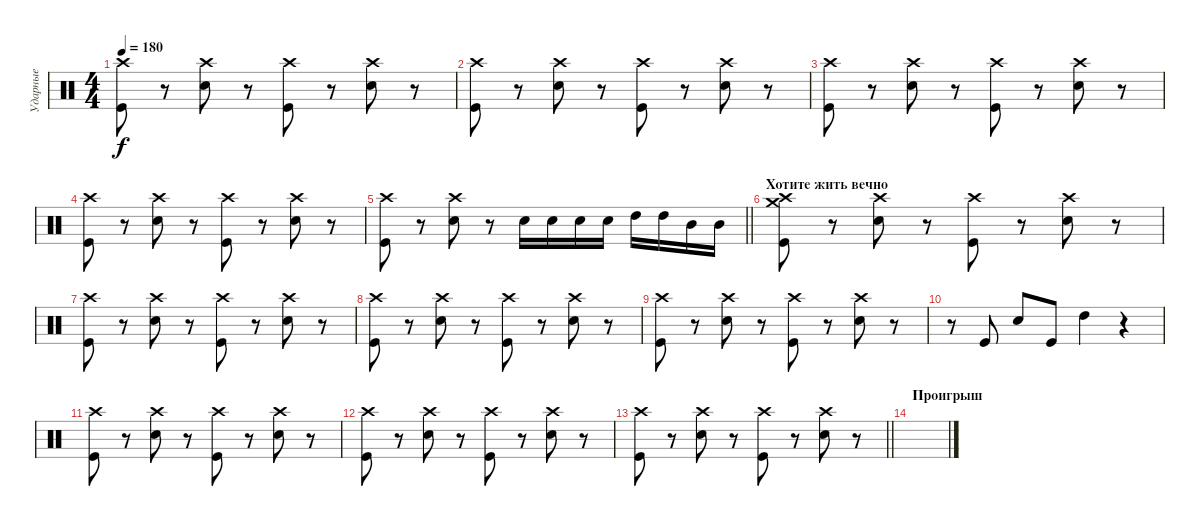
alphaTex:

\track ("Ударные" "Ударные") {instrument percussion}
\staff {score}
\articulation defaults
\ts (4 4)
\tempo 180
\clef neutral
\ks c
("Kick (hit)" "Crash high (hit)").8{dy f} r.8 ("Electric Snare (hit)" "Crash high (hit)").8 r.8 ("Kick (hit)" "Crash high (hit)").8 r.8 ("Electric Snare (hit)" "Crash high (hit)").8 r.8 |
("Kick (hit)" "Crash high (hit)").8 r.8 ("Electric Snare (hit)" "Crash high (hit)").8 r.8 ("Kick (hit)" "Crash high (hit)").8 r.8 ("Electric Snare (hit)" "Crash high (hit)").8 r.8 |
("Kick (hit)" "Crash high (hit)").8 r.8 ("Electric Snare (hit)" "Crash high (hit)").8 r.8 ("Kick (hit)" "Crash high (hit)").8 r.8 ("Electric Snare (hit)" "Crash high (hit)").8 r.8 |
("Kick (hit)" "Crash high (hit)").8 r.8 ("Electric Snare (hit)" "Crash high (hit)").8 r.8 ("Kick (hit)" "Crash high (hit)").8 r.8 ("Electric Snare (hit)" "Crash high (hit)").8 r.8 |
\barLineRight lightlight
("Kick (hit)" "Crash high (hit)").8 r.8 ("Electric Snare (hit)" "Crash high (hit)").8 r.8 "Electric Snare (hit)".16 "Electric Snare (hit)".16 "Electric Snare (hit)".16 "Electric Snare (hit)".16 "High Tom (hit)".16 "High Tom (hit)".16 "Mid Tom (hit)".16 "Mid Tom (hit)".16 |
\section ("" "Хотите жить вечно")
("Kick (hit)" "Crash high (hit)" "Crash medium (hit)").8 r.8 ("Electric Snare (hit)" "Crash high (hit)").8 r.8 ("Kick (hit)" "Crash high (hit)").8 r.8 ("Electric Snare (hit)" "Crash high (hit)").8 r.8 |
("Kick (hit)" "Crash high (hit)").8 r.8 ("Electric Snare (hit)" "Crash high (hit)").8 r.8 ("Kick (hit)" "Crash high (hit)").8 r.8 ("Electric Snare (hit)" "Crash high (hit)").8 r.8 |
("Kick (hit)" "Crash high (hit)").8 r.8 ("Electric Snare (hit)" "Crash high (hit)").8 r.8 ("Kick (hit)" "Crash high (hit)").8 r.8 ("Electric Snare (hit)" "Crash high (hit)").8 r.8 |
("Kick (hit)" "Crash high (hit)").8 r.8 ("Electric Snare (hit)" "Crash high (hit)").8 r.8 ("Kick (hit)" "Crash high (hit)").8 r.8 ("Electric Snare (hit)" "Crash high (hit)").8 r.8 |
r.8 "Kick (hit)".8 "Electric Snare (hit)".8 "Kick (hit)".8 "High Tom (hit)".4 r.4 |
("Kick (hit)" "Crash high (hit)").8 r.8 ("Electric Snare (hit)" "Crash high (hit)").8 r.8 ("Kick (hit)" "Crash high (hit)").8 r.8 ("Electric Snare (hit)" "Crash high (hit)").8 r.8 |
("Kick (hit)" "Crash high (hit)").8 r.8 ("Electric Snare (hit)" "Crash high (hit)").8 r.8 ("Kick (hit)" "Crash high (hit)").8 r.8 ("Electric Snare (hit)" "Crash high (hit)").8 r.8 |
\barLineRight lightlight
("Kick (hit)" "Crash high (hit)").8 r.8 ("Electric Snare (hit)" "Crash high (hit)").8 r.8 ("Kick (hit)" "Crash high (hit)").8 r.8 ("Electric Snare (hit)" "Crash high (hit)").8 r.8 |
\section ("" "Проигрыш")
